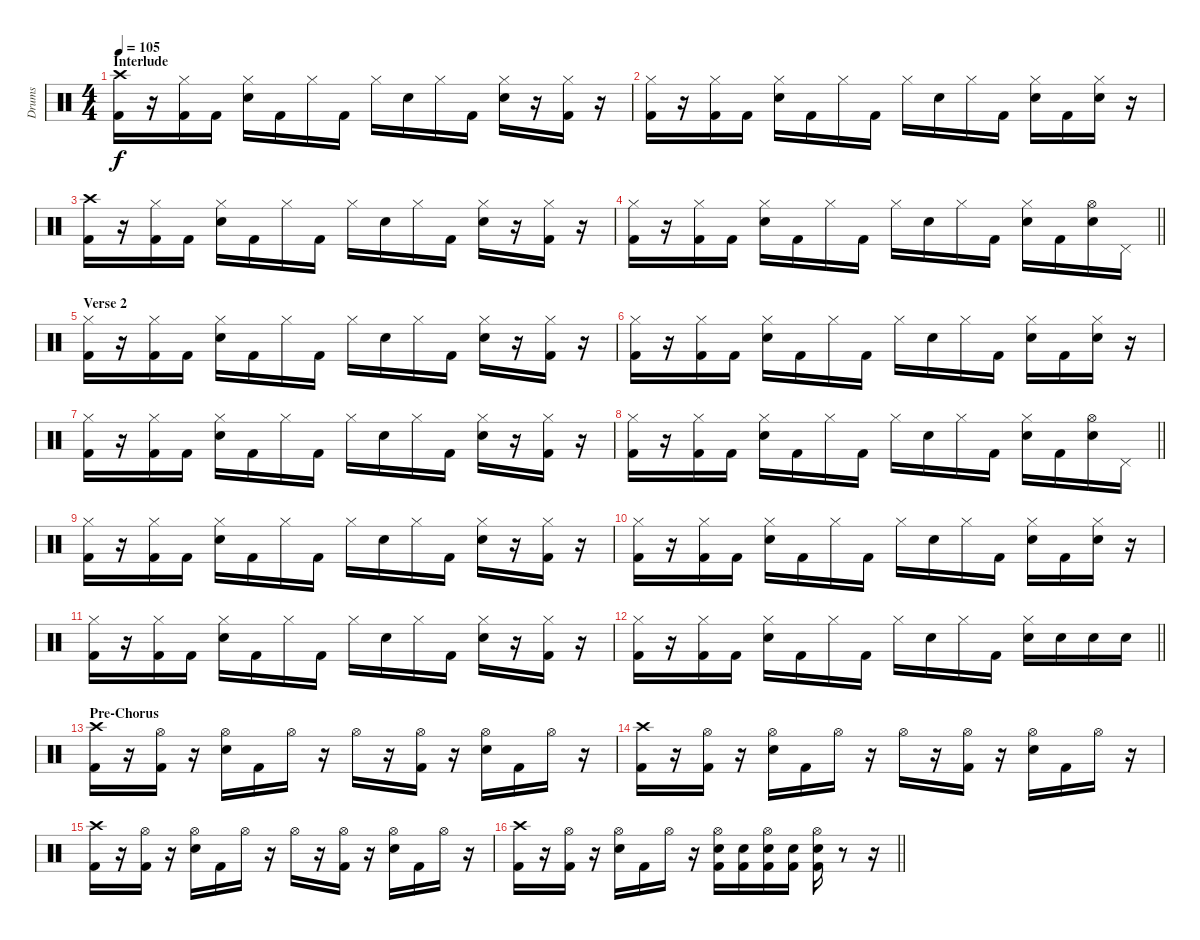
\track ("Drums" "Drums") {instrument percussion}
\staff {score}
\articulation defaults
\ts (4 4)
\section ("" "Interlude")
\tempo 105
\clef neutral
\ks c
("Crash high (hit)" "Kick (hit) 2").16{dy f} r.16 ("Hi-Hat (closed)" "Kick (hit) 2").16 "Kick (hit) 2".16 ("Hi-Hat (closed)" "Electric Snare (hit)").16 "Kick (hit) 2".16 "Hi-Hat (closed)".16 "Kick (hit) 2".16 "Hi-Hat (closed)".16 "Electric Snare (hit)".16 "Hi-Hat (closed)".16 "Kick (hit) 2".16 ("Hi-Hat (closed)" "Electric Snare (hit)").16 r.16 ("Hi-Hat (closed)" "Kick (hit) 2").16 r.16 |
("Hi-Hat (closed)" "Kick (hit) 2").16 r.16 ("Hi-Hat (closed)" "Kick (hit) 2").16 "Kick (hit) 2".16 ("Hi-Hat (closed)" "Electric Snare (hit)").16 "Kick (hit) 2".16 "Hi-Hat (closed)".16 "Kick (hit) 2".16 "Hi-Hat (closed)".16 "Electric Snare (hit)".16 "Hi-Hat (closed)".16 "Kick (hit) 2".16 ("Hi-Hat (closed)" "Electric Snare (hit)").16 "Kick (hit) 2".16 ("Hi-Hat (closed)" "Electric Snare (hit)").16 r.16 |
("Crash high (hit)" "Kick (hit) 2").16 r.16 ("Hi-Hat (closed)" "Kick (hit) 2").16 "Kick (hit) 2".16 ("Hi-Hat (closed)" "Electric Snare (hit)").16 "Kick (hit) 2".16 "Hi-Hat (closed)".16 "Kick (hit) 2".16 "Hi-Hat (closed)".16 "Electric Snare (hit)".16 "Hi-Hat (closed)".16 "Kick (hit) 2".16 ("Hi-Hat (closed)" "Electric Snare (hit)").16 r.16 ("Hi-Hat (closed)" "Kick (hit) 2").16 r.16 |
\barLineRight lightlight
("Hi-Hat (closed)" "Kick (hit) 2").16 r.16 ("Hi-Hat (closed)" "Kick (hit) 2").16 "Kick (hit) 2".16 ("Hi-Hat (closed)" "Electric Snare (hit)").16 "Kick (hit) 2".16 "Hi-Hat (closed)".16 "Kick (hit) 2".16 "Hi-Hat (closed)".16 "Electric Snare (hit)".16 "Hi-Hat (closed)".16 "Kick (hit) 2".16 ("Hi-Hat (closed)" "Electric Snare (hit)").16 "Kick (hit) 2".16 ("Hi-Hat (open)" "Electric Snare (hit)").16 "Pedal Hi-Hat (hit)".16 |
\section ("" "Verse 2")
("Hi-Hat (closed)" "Kick (hit) 2").16 r.16 ("Hi-Hat (closed)" "Kick (hit) 2").16 "Kick (hit) 2".16 ("Hi-Hat (closed)" "Electric Snare (hit)").16 "Kick (hit) 2".16 "Hi-Hat (closed)".16 "Kick (hit) 2".16 "Hi-Hat (closed)".16 "Electric Snare (hit)".16 "Hi-Hat (closed)".16 "Kick (hit) 2".16 ("Hi-Hat (closed)" "Electric Snare (hit)").16 r.16 ("Hi-Hat (closed)" "Kick (hit) 2").16 r.16 |
("Hi-Hat (closed)" "Kick (hit) 2").16 r.16 ("Hi-Hat (closed)" "Kick (hit) 2").16 "Kick (hit) 2".16 ("Hi-Hat (closed)" "Electric Snare (hit)").16 "Kick (hit) 2".16 "Hi-Hat (closed)".16 "Kick (hit) 2".16 "Hi-Hat (closed)".16 "Electric Snare (hit)".16 "Hi-Hat (closed)".16 "Kick (hit) 2".16 ("Hi-Hat (closed)" "Electric Snare (hit)").16 "Kick (hit) 2".16 ("Hi-Hat (closed)" "Electric Snare (hit)").16 r.16 |
("Hi-Hat (closed)" "Kick (hit) 2").16 r.16 ("Hi-Hat (closed)" "Kick (hit) 2").16 "Kick (hit) 2".16 ("Hi-Hat (closed)" "Electric Snare (hit)").16 "Kick (hit) 2".16 "Hi-Hat (closed)".16 "Kick (hit) 2".16 "Hi-Hat (closed)".16 "Electric Snare (hit)".16 "Hi-Hat (closed)".16 "Kick (hit) 2".16 ("Hi-Hat (closed)" "Electric Snare (hit)").16 r.16 ("Hi-Hat (closed)" "Kick (hit) 2").16 r.16 |
\barLineRight lightlight
("Hi-Hat (closed)" "Kick (hit) 2").16 r.16 ("Hi-Hat (closed)" "Kick (hit) 2").16 "Kick (hit) 2".16 ("Hi-Hat (closed)" "Electric Snare (hit)").16 "Kick (hit) 2".16 "Hi-Hat (closed)".16 "Kick (hit) 2".16 "Hi-Hat (closed)".16 "Electric Snare (hit)".16 "Hi-Hat (closed)".16 "Kick (hit) 2".16 ("Hi-Hat (closed)" "Electric Snare (hit)").16 "Kick (hit) 2".16 ("Hi-Hat (open)" "Electric Snare (hit)").16 "Pedal Hi-Hat (hit)".16 |
("Hi-Hat (closed)" "Kick (hit) 2").16 r.16 ("Hi-Hat (closed)" "Kick (hit) 2").16 "Kick (hit) 2".16 ("Hi-Hat (closed)" "Electric Snare (hit)").16 "Kick (hit) 2".16 "Hi-Hat (closed)".16 "Kick (hit) 2".16 "Hi-Hat (closed)".16 "Electric Snare (hit)".16 "Hi-Hat (closed)".16 "Kick (hit) 2".16 ("Hi-Hat (closed)" "Electric Snare (hit)").16 r.16 ("Hi-Hat (closed)" "Kick (hit) 2").16 r.16 |
("Hi-Hat (closed)" "Kick (hit) 2").16 r.16 ("Hi-Hat (closed)" "Kick (hit) 2").16 "Kick (hit) 2".16 ("Hi-Hat (closed)" "Electric Snare (hit)").16 "Kick (hit) 2".16 "Hi-Hat (closed)".16 "Kick (hit) 2".16 "Hi-Hat (closed)".16 "Electric Snare (hit)".16 "Hi-Hat (closed)".16 "Kick (hit) 2".16 ("Hi-Hat (closed)" "Electric Snare (hit)").16 "Kick (hit) 2".16 ("Hi-Hat (closed)" "Electric Snare (hit)").16 r.16 |
("Hi-Hat (closed)" "Kick (hit) 2").16 r.16 ("Hi-Hat (closed)" "Kick (hit) 2").16 "Kick (hit) 2".16 ("Hi-Hat (closed)" "Electric Snare (hit)").16 "Kick (hit) 2".16 "Hi-Hat (closed)".16 "Kick (hit) 2".16 "Hi-Hat (closed)".16 "Electric Snare (hit)".16 "Hi-Hat (closed)".16 "Kick (hit) 2".16 ("Hi-Hat (closed)" "Electric Snare (hit)").16 r.16 ("Hi-Hat (closed)" "Kick (hit) 2").16 r.16 |
\barLineRight lightlight
("Hi-Hat (closed)" "Kick (hit) 2").16 r.16 ("Hi-Hat (closed)" "Kick (hit) 2").16 "Kick (hit) 2".16 ("Hi-Hat (closed)" "Electric Snare (hit)").16 "Kick (hit) 2".16 "Hi-Hat (closed)".16 "Kick (hit) 2".16 "Hi-Hat (closed)".16 "Electric Snare (hit)".16 "Hi-Hat (closed)".16 "Kick (hit) 2".16 ("Hi-Hat (closed)" "Electric Snare (hit)").16 "Electric Snare (hit)".16 "Electric Snare (hit)".16 "Electric Snare (hit)".16 |
\section ("" "Pre-Chorus")
("Crash high (hit)" "Kick (hit) 2").16 r.16 ("Hi-Hat (open)" "Kick (hit) 2").16 r.16 ("Hi-Hat (open)" "Electric Snare (hit)").16 "Kick (hit) 2".16 "Hi-Hat (open)".16 r.16 "Hi-Hat (open)".16 r.16 ("Hi-Hat (open)" "Kick (hit) 2").16 r.16 ("Hi-Hat (open)" "Electric Snare (hit)").16 "Kick (hit) 2".16 "Hi-Hat (open)".16 r.16 |
("Crash high (hit)" "Kick (hit) 2").16 r.16 ("Hi-Hat (open)" "Kick (hit) 2").16 r.16 ("Hi-Hat (open)" "Electric Snare (hit)").16 "Kick (hit) 2".16 "Hi-Hat (open)".16 r.16 "Hi-Hat (open)".16 r.16 ("Hi-Hat (open)" "Kick (hit) 2").16 r.16 ("Hi-Hat (open)" "Electric Snare (hit)").16 "Kick (hit) 2".16 "Hi-Hat (open)".16 r.16 |
("Crash high (hit)" "Kick (hit) 2").16 r.16 ("Hi-Hat (open)" "Kick (hit) 2").16 r.16 ("Hi-Hat (open)" "Electric Snare (hit)").16 "Kick (hit) 2".16 "Hi-Hat (open)".16 r.16 "Hi-Hat (open)".16 r.16 ("Hi-Hat (open)" "Kick (hit) 2").16 r.16 ("Hi-Hat (open)" "Electric Snare (hit)").16 "Kick (hit) 2".16 "Hi-Hat (open)".16 r.16 |
\barLineRight lightlight
("Crash high (hit)" "Kick (hit) 2").16 r.16 ("Hi-Hat (open)" "Kick (hit) 2").16 r.16 ("Hi-Hat (open)" "Electric Snare (hit)").16 "Kick (hit) 2".16 "Hi-Hat (open)".16 r.16 ("Hi-Hat (open)" "Electric Snare (hit)" "Kick (hit) 2").16 ("Electric Snare (hit)" "Kick (hit) 2").16 ("Hi-Hat (open)" "Electric Snare (hit)" "Kick (hit) 2").16 ("Electric Snare (hit)" "Kick (hit) 2").16 ("Hi-Hat (open)" "Electric Snare (hit)" "Kick (hit) 2").16 r.8 r.16
